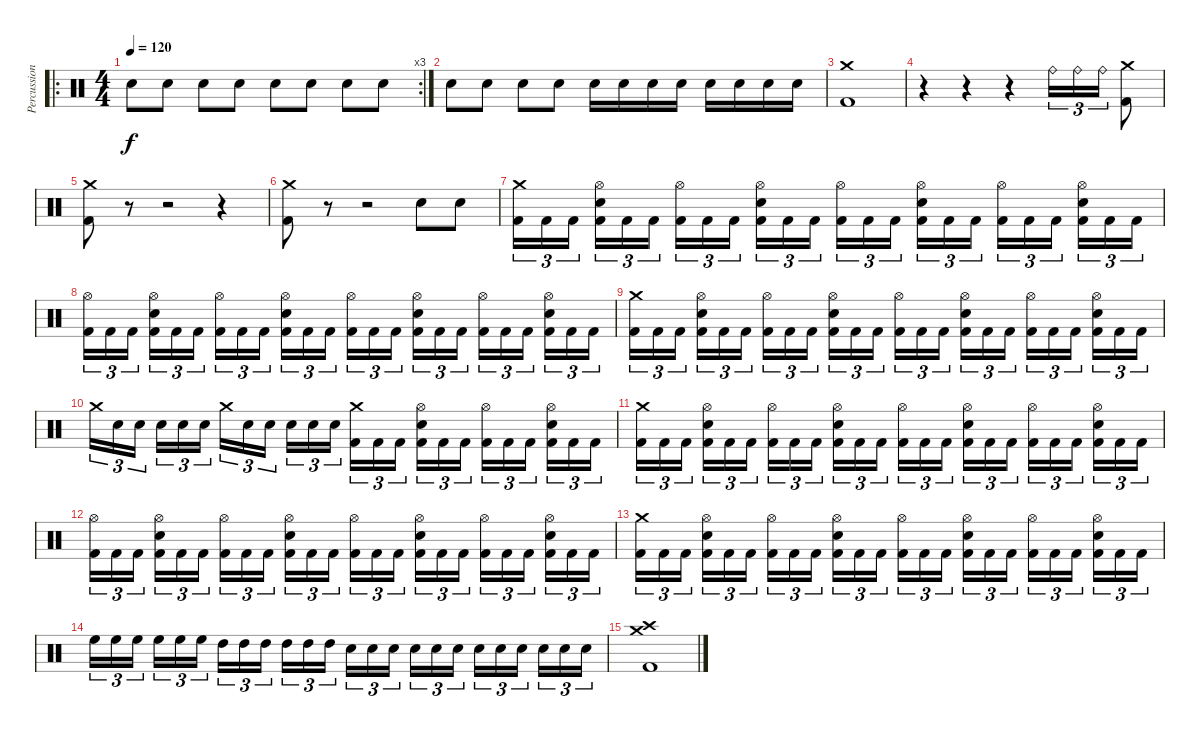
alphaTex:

\track ("Percussion" "Percussion") {instrument percussion}
\staff {score}
\articulation defaults
\ro
\rc 3
\ts (4 4)
\tempo 120
\clef neutral
\ks c "Snare (hit) 2".8{dy f} "Snare (hit) 2".8 "Snare (hit) 2".8 "Snare (hit) 2".8 "Snare (hit) 2".8 "Snare (hit) 2".8 "Snare (hit) 2".8 "Snare (hit) 2".8
|
"Snare (hit) 2".8 "Snare (hit) 2".8 "Snare (hit) 2".8 "Snare (hit) 2".8 "Snare (hit) 2".16 "Snare (hit) 2".16 "Snare (hit) 2".16 "Snare (hit) 2".16 "Snare (hit) 2".16 "Snare (hit) 2".16 "Snare (hit) 2".16 "Snare (hit) 2".16 |
("Kick (hit) 2" "Crash medium (hit)").1 |
r.4 r.4 r.4 "Ride (bell)".16{tu (3 2)} "Ride (bell)".16{tu (3 2)} "Ride (bell)".16{tu (3 2)} ("Kick (hit) 2" "Crash medium (hit)").8 |
("Kick (hit) 2" "Crash medium (hit)").8 r.8 r.2 r.4 |
("Kick (hit) 2" "Crash medium (hit)").8 r.8 r.2 "Snare (hit) 2".8 "Snare (hit) 2".8 |
("Kick (hit) 2" "Crash medium (hit)").16{tu (3 2)} "Kick (hit) 2".16{tu (3 2)} "Kick (hit) 2".16{tu (3 2)} ("Kick (hit) 2" "Snare (hit) 2" "Hi-Hat (open)").16{tu (3 2)} "Kick (hit) 2".16{tu (3 2)} "Kick (hit) 2".16{tu (3 2)} ("Kick (hit) 2" "Hi-Hat (open)").16{tu (3 2)} "Kick (hit) 2".16{tu (3 2)} "Kick (hit) 2".16{tu (3 2)} ("Kick (hit) 2" "Snare (hit) 2" "Hi-Hat (open)").16{tu (3 2)} "Kick (hit) 2".16{tu (3 2)} "Kick (hit) 2".16{tu (3 2)} ("Kick (hit) 2" "Hi-Hat (open)").16{tu (3 2)} "Kick (hit) 2".16{tu (3 2)} "Kick (hit) 2".16{tu (3 2)} ("Kick (hit) 2" "Snare (hit) 2" "Hi-Hat (open)").16{tu (3 2)} "Kick (hit) 2".16{tu (3 2)} "Kick (hit) 2".16{tu (3 2)} ("Kick (hit) 2" "Hi-Hat (open)").16{tu (3 2)} "Kick (hit) 2".16{tu (3 2)} "Kick (hit) 2".16{tu (3 2)} ("Kick (hit) 2" "Snare (hit) 2" "Hi-Hat (open)").16{tu (3 2)} "Kick (hit) 2".16{tu (3 2)} "Kick (hit) 2".16{tu (3 2)} |
("Kick (hit) 2" "Hi-Hat (open)").16{tu (3 2)} "Kick (hit) 2".16{tu (3 2)} "Kick (hit) 2".16{tu (3 2)} ("Kick (hit) 2" "Snare (hit) 2" "Hi-Hat (open)").16{tu (3 2)} "Kick (hit) 2".16{tu (3 2)} "Kick (hit) 2".16{tu (3 2)} ("Kick (hit) 2" "Hi-Hat (open)").16{tu (3 2)} "Kick (hit) 2".16{tu (3 2)} "Kick (hit) 2".16{tu (3 2)} ("Kick (hit) 2" "Snare (hit) 2" "Hi-Hat (open)").16{tu (3 2)} "Kick (hit) 2".16{tu (3 2)} "Kick (hit) 2".16{tu (3 2)} ("Kick (hit) 2" "Hi-Hat (open)").16{tu (3 2)} "Kick (hit) 2".16{tu (3 2)} "Kick (hit) 2".16{tu (3 2)} ("Kick (hit) 2" "Snare (hit) 2" "Hi-Hat (open)").16{tu (3 2)} "Kick (hit) 2".16{tu (3 2)} "Kick (hit) 2".16{tu (3 2)} ("Kick (hit) 2" "Hi-Hat (open)").16{tu (3 2)} "Kick (hit) 2".16{tu (3 2)} "Kick (hit) 2".16{tu (3 2)} ("Kick (hit) 2" "Snare (hit) 2" "Hi-Hat (open)").16{tu (3 2)} "Kick (hit) 2".16{tu (3 2)} "Kick (hit) 2".16{tu (3 2)} |
("Kick (hit) 2" "Crash medium (hit)").16{tu (3 2)} "Kick (hit) 2".16{tu (3 2)} "Kick (hit) 2".16{tu (3 2)} ("Kick (hit) 2" "Snare (hit) 2" "Hi-Hat (open)").16{tu (3 2)} "Kick (hit) 2".16{tu (3 2)} "Kick (hit) 2".16{tu (3 2)} ("Kick (hit) 2" "Hi-Hat (open)").16{tu (3 2)} "Kick (hit) 2".16{tu (3 2)} "Kick (hit) 2".16{tu (3 2)} ("Kick (hit) 2" "Snare (hit) 2" "Hi-Hat (open)").16{tu (3 2)} "Kick (hit) 2".16{tu (3 2)} "Kick (hit) 2".16{tu (3 2)} ("Kick (hit) 2" "Hi-Hat (open)").16{tu (3 2)} "Kick (hit) 2".16{tu (3 2)} "Kick (hit) 2".16{tu (3 2)} ("Kick (hit) 2" "Snare (hit) 2" "Hi-Hat (open)").16{tu (3 2)} "Kick (hit) 2".16{tu (3 2)} "Kick (hit) 2".16{tu (3 2)} ("Kick (hit) 2" "Hi-Hat (open)").16{tu (3 2)} "Kick (hit) 2".16{tu (3 2)} "Kick (hit) 2".16{tu (3 2)} ("Kick (hit) 2" "Snare (hit) 2" "Hi-Hat (open)").16{tu (3 2)} "Kick (hit) 2".16{tu (3 2)} "Kick (hit) 2".16{tu (3 2)} |
"Crash medium (hit)".16{tu (3 2)} "Snare (hit) 2".16{tu (3 2)} "Snare (hit) 2".16{tu (3 2)} "Snare (hit) 2".16{tu (3 2)} "Snare (hit) 2".16{tu (3 2)} "Snare (hit) 2".16{tu (3 2)} "Crash medium (hit)".16{tu (3 2)} "Snare (hit) 2".16{tu (3 2)} "Snare (hit) 2".16{tu (3 2)} "Snare (hit) 2".16{tu (3 2)} "Snare (hit) 2".16{tu (3 2)} "Snare (hit) 2".16{tu (3 2)} ("Kick (hit) 2" "Crash medium (hit)").16{tu (3 2)} "Kick (hit) 2".16{tu (3 2)} "Kick (hit) 2".16{tu (3 2)} ("Kick (hit) 2" "Snare (hit) 2" "Hi-Hat (open)").16{tu (3 2)} "Kick (hit) 2".16{tu (3 2)} "Kick (hit) 2".16{tu (3 2)} ("Kick (hit) 2" "Hi-Hat (open)").16{tu (3 2)} "Kick (hit) 2".16{tu (3 2)} "Kick (hit) 2".16{tu (3 2)} ("Kick (hit) 2" "Snare (hit) 2" "Hi-Hat (open)").16{tu (3 2)} "Kick (hit) 2".16{tu (3 2)} "Kick (hit) 2".16{tu (3 2)} |
("Kick (hit) 2" "Crash medium (hit)").16{tu (3 2)} "Kick (hit) 2".16{tu (3 2)} "Kick (hit) 2".16{tu (3 2)} ("Kick (hit) 2" "Snare (hit) 2" "Hi-Hat (open)").16{tu (3 2)} "Kick (hit) 2".16{tu (3 2)} "Kick (hit) 2".16{tu (3 2)} ("Kick (hit) 2" "Hi-Hat (open)").16{tu (3 2)} "Kick (hit) 2".16{tu (3 2)} "Kick (hit) 2".16{tu (3 2)} ("Kick (hit) 2" "Snare (hit) 2" "Hi-Hat (open)").16{tu (3 2)} "Kick (hit) 2".16{tu (3 2)} "Kick (hit) 2".16{tu (3 2)} ("Kick (hit) 2" "Hi-Hat (open)").16{tu (3 2)} "Kick (hit) 2".16{tu (3 2)} "Kick (hit) 2".16{tu (3 2)} ("Kick (hit) 2" "Snare (hit) 2" "Hi-Hat (open)").16{tu (3 2)} "Kick (hit) 2".16{tu (3 2)} "Kick (hit) 2".16{tu (3 2)} ("Kick (hit) 2" "Hi-Hat (open)").16{tu (3 2)} "Kick (hit) 2".16{tu (3 2)} "Kick (hit) 2".16{tu (3 2)} ("Kick (hit) 2" "Snare (hit) 2" "Hi-Hat (open)").16{tu (3 2)} "Kick (hit) 2".16{tu (3 2)} "Kick (hit) 2".16{tu (3 2)} |
("Kick (hit) 2" "Hi-Hat (open)").16{tu (3 2)} "Kick (hit) 2".16{tu (3 2)} "Kick (hit) 2".16{tu (3 2)} ("Kick (hit) 2" "Snare (hit) 2" "Hi-Hat (open)").16{tu (3 2)} "Kick (hit) 2".16{tu (3 2)} "Kick (hit) 2".16{tu (3 2)} ("Kick (hit) 2" "Hi-Hat (open)").16{tu (3 2)} "Kick (hit) 2".16{tu (3 2)} "Kick (hit) 2".16{tu (3 2)} ("Kick (hit) 2" "Snare (hit) 2" "Hi-Hat (open)").16{tu (3 2)} "Kick (hit) 2".16{tu (3 2)} "Kick (hit) 2".16{tu (3 2)} ("Kick (hit) 2" "Hi-Hat (open)").16{tu (3 2)} "Kick (hit) 2".16{tu (3 2)} "Kick (hit) 2".16{tu (3 2)} ("Kick (hit) 2" "Snare (hit) 2" "Hi-Hat (open)").16{tu (3 2)} "Kick (hit) 2".16{tu (3 2)} "Kick (hit) 2".16{tu (3 2)} ("Kick (hit) 2" "Hi-Hat (open)").16{tu (3 2)} "Kick (hit) 2".16{tu (3 2)} "Kick (hit) 2".16{tu (3 2)} ("Kick (hit) 2" "Snare (hit) 2" "Hi-Hat (open)").16{tu (3 2)} "Kick (hit) 2".16{tu (3 2)} "Kick (hit) 2".16{tu (3 2)} |
("Kick (hit) 2" "Crash medium (hit)").16{tu (3 2)} "Kick (hit) 2".16{tu (3 2)} "Kick (hit) 2".16{tu (3 2)} ("Kick (hit) 2" "Snare (hit) 2" "Hi-Hat (open)").16{tu (3 2)} "Kick (hit) 2".16{tu (3 2)} "Kick (hit) 2".16{tu (3 2)} ("Kick (hit) 2" "Hi-Hat (open)").16{tu (3 2)} "Kick (hit) 2".16{tu (3 2)} "Kick (hit) 2".16{tu (3 2)} ("Kick (hit) 2" "Snare (hit) 2" "Hi-Hat (open)").16{tu (3 2)} "Kick (hit) 2".16{tu (3 2)} "Kick (hit) 2".16{tu (3 2)} ("Kick (hit) 2" "Hi-Hat (open)").16{tu (3 2)} "Kick (hit) 2".16{tu (3 2)} "Kick (hit) 2".16{tu (3 2)} ("Kick (hit) 2" "Snare (hit) 2" "Hi-Hat (open)").16{tu (3 2)} "Kick (hit) 2".16{tu (3 2)} "Kick (hit) 2".16{tu (3 2)} ("Kick (hit) 2" "Hi-Hat (open)").16{tu (3 2)} "Kick (hit) 2".16{tu (3 2)} "Kick (hit) 2".16{tu (3 2)} ("Kick (hit) 2" "Snare (hit) 2" "Hi-Hat (open)").16{tu (3 2)} "Kick (hit) 2".16{tu (3 2)} "Kick (hit) 2".16{tu (3 2)} |
"High Floor Tom (hit)".16{tu (3 2)} "High Floor Tom (hit)".16{tu (3 2)} "High Floor Tom (hit)".16{tu (3 2)} "High Floor Tom (hit)".16{tu (3 2)} "High Floor Tom (hit)".16{tu (3 2)} "High Floor Tom (hit)".16{tu (3 2)} "High Tom (hit)".16{tu (3 2)} "High Tom (hit)".16{tu (3 2)} "High Tom (hit)".16{tu (3 2)} "High Tom (hit)".16{tu (3 2)} "High Tom (hit)".16{tu (3 2)} "High Tom (hit)".16{tu (3 2)} "Snare (hit) 2".16{tu (3 2)} "Snare (hit) 2".16{tu (3 2)} "Snare (hit) 2".16{tu (3 2)} "Snare (hit) 2".16{tu (3 2)} "Snare (hit) 2".16{tu (3 2)} "Snare (hit) 2".16{tu (3 2)} "Snare (hit) 2".16{tu (3 2)} "Snare (hit) 2".16{tu (3 2)} "Snare (hit) 2".16{tu (3 2)} "Snare (hit) 2".16{tu (3 2)} "Snare (hit) 2".16{tu (3 2)} "Snare (hit) 2".16{tu (3 2)} |
("Crash high (hit)" "Kick (hit) 2" "Crash medium (hit)").1
